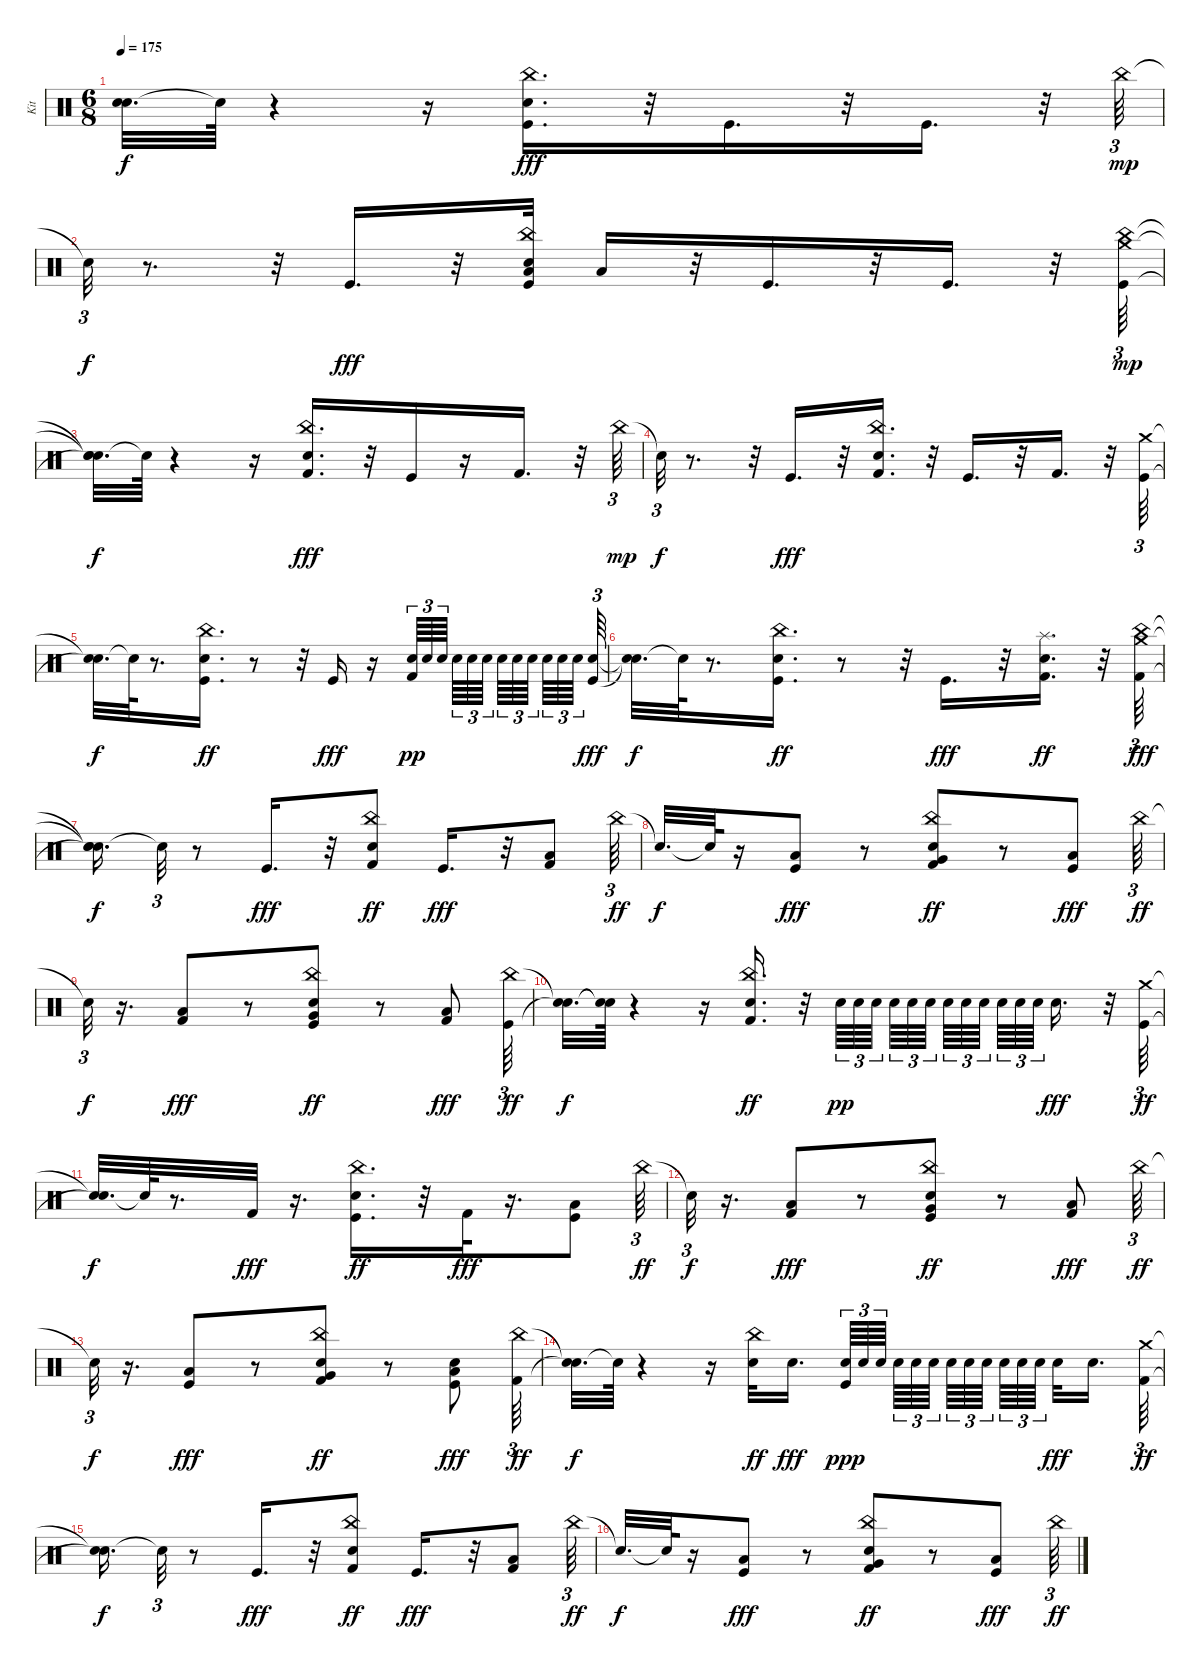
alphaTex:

\track ("Kit" "Kit") {instrument percussion}
\staff {score}
\articulation defaults
\ts (6 8)
\tempo 175
\clef neutral
\ks c
("Snare (hit)"{t} "Snare (hit)"{t}).32{d dy f} "Snare (hit)"{t}.64 r.4 r.16 ("Kick (hit)" "Snare (hit) 2" "China (hit)").16{d dy fff} r.32 "Kick (hit)".16{d} r.32 "Kick (hit)".16{d} r.32 "China (hit)".64{tu (3 2) dy mp} |
"Snare (hit)"{t}.32{tu (3 2) dy f} r.8{d} r.32 "Kick (hit)".16{d dy fff} r.32 ("Kick (hit)" "Snare (hit) 2" "Low Floor Tom (hit)" "China (hit)").32 "Low Floor Tom (hit)".16 r.32 "Kick (hit)".16{d} r.32 "Kick (hit)".16{d} r.32 ("Kick (hit)" "China (hit)" "Crash medium (hit)").64{tu (3 2) dy mp} |
("Snare (hit)"{t} "Snare (hit)"{t} "Snare (hit)"{t}).32{d dy f} "Snare (hit)"{t}.64 r.4 r.16 ("Kick (hit) 2" "Snare (hit) 2" "China (hit)").16{d dy fff} r.32 "Kick (hit)".16 r.16 "Kick (hit) 2".16{d} r.32 "China (hit)".64{tu (3 2) dy mp} |
"Snare (hit)"{t}.32{tu (3 2) dy f} r.8{d} r.32 "Kick (hit)".16{d dy fff} r.32 ("Kick (hit) 2" "Snare (hit) 2" "China (hit)").16{d} r.32 "Kick (hit)".16{d} r.32 "Kick (hit) 2".16{d} r.32 ("Kick (hit)" "Crash medium (hit)").64{tu (3 2)} |
("Snare (hit)"{t} "Snare (hit)"{t}).32{d dy f} "Snare (hit)"{t}.64 r.8{d} ("Kick (hit)" "Snare (hit) 2" "China (hit)").16{d dy ff} r.8 r.32 "Kick (hit)".16{dy fff} r.16 ("Kick (hit) 2" "Snare (hit) 2").64{tu (3 2) dy pp} "Snare (hit) 2".64{tu (3 2)} "Snare (hit) 2".64{tu (3 2) beam splitsecondary} "Snare (hit) 2".64{tu (3 2)} "Snare (hit) 2".64{tu (3 2)} "Snare (hit) 2".64{tu (3 2) beam splitsecondary} "Snare (hit) 2".64{tu (3 2)} "Snare (hit) 2".64{tu (3 2)} "Snare (hit) 2".64{tu (3 2) beam splitsecondary} "Snare (hit) 2".64{tu (3 2)} "Snare (hit) 2".64{tu (3 2)} "Snare (hit) 2".64{tu (3 2)} ("Kick (hit)" "Snare (hit) 2").64{tu (3 2) dy fff} |
("Snare (hit)"{t} "Snare (hit)"{t}).32{d dy f} "Snare (hit)"{t}.64 r.8{d} ("Kick (hit)" "Snare (hit) 2" "China (hit)").16{d dy ff} r.8 r.32 "Kick (hit)".16{d dy fff} r.32 ("Kick (hit) 2" "Snare (hit) 2" "Splash (hit)").16{d dy ff} r.32 ("Kick (hit) 2" "China (hit)" "Crash medium (hit)").64{tu (3 2) dy fff} |
("Snare (hit)"{t} "Snare (hit)"{t} "Snare (hit)"{t}).16{d dy f} "Snare (hit)"{t}.32{tu (3 2)} r.8 "Kick (hit)".16{d dy fff} r.32 ("Kick (hit) 2" "Snare (hit) 2" "China (hit)").8{dy ff} "Kick (hit)".16{d dy fff} r.32 ("Kick (hit) 2" "Low Floor Tom (hit)").8 "China (hit)".64{tu (3 2) dy ff} |
"Snare (hit)"{t}.32{d dy f} "Snare (hit)"{t}.64 r.16 ("Kick (hit)" "Low Floor Tom (hit)").8{dy fff} r.8 ("Kick (hit) 2" "Snare (hit) 2" "Very Low Tom (hit)" "China (hit)").8{dy ff} r.8 ("Kick (hit)" "Low Floor Tom (hit)").8{dy fff} "China (hit)".64{tu (3 2) dy ff} |
"Snare (hit)"{t}.32{tu (3 2) dy f} r.16{d} ("Kick (hit) 2" "Low Floor Tom (hit)").8{dy fff} r.8 ("Kick (hit)" "Snare (hit) 2" "Very Low Tom (hit)" "China (hit)").8{dy ff} r.8 ("Kick (hit) 2" "Low Floor Tom (hit)").8{dy fff} ("Kick (hit)" "China (hit)").64{tu (3 2) dy ff} |
("Snare (hit)"{t} "Snare (hit)"{t}).32{d dy f} ("Snare (hit)"{t} "Snare (hit)"{t}).64 r.4 r.16 ("Kick (hit) 2" "Snare (hit) 2" "China (hit)").16{d dy ff} r.32 "Snare (hit) 2".64{tu (3 2) dy pp} "Snare (hit) 2".64{tu (3 2)} "Snare (hit) 2".64{tu (3 2) beam splitsecondary} "Snare (hit) 2".64{tu (3 2)} "Snare (hit) 2".64{tu (3 2)} "Snare (hit) 2".64{tu (3 2) beam splitsecondary} "Snare (hit) 2".64{tu (3 2)} "Snare (hit) 2".64{tu (3 2)} "Snare (hit) 2".64{tu (3 2) beam splitsecondary} "Snare (hit) 2".64{tu (3 2)} "Snare (hit) 2".64{tu (3 2)} "Snare (hit) 2".64{tu (3 2) beam splitsecondary} "Snare (hit) 2".16{d dy fff} r.32 ("Kick (hit)" "Crash medium (hit)").64{tu (3 2) dy ff} |
("Snare (hit)"{t} "Snare (hit)"{t}).32{d dy f} "Snare (hit)"{t}.64 r.8{d} "Kick (hit) 2".32{dy fff} r.16{d} ("Kick (hit)" "Snare (hit) 2" "China (hit)").16{d dy ff} r.32 "Kick (hit) 2".32{dy fff} r.16{d} ("Kick (hit)" "Low Floor Tom (hit)").8 "China (hit)".64{tu (3 2) dy ff} |
"Snare (hit)"{t}.32{tu (3 2) dy f} r.16{d} ("Kick (hit) 2" "Low Floor Tom (hit)").8{dy fff} r.8 ("Kick (hit)" "Snare (hit) 2" "Very Low Tom (hit)" "China (hit)").8{dy ff} r.8 ("Kick (hit) 2" "Low Floor Tom (hit)").8{dy fff} "China (hit)".64{tu (3 2) dy ff} |
"Snare (hit)"{t}.32{tu (3 2) dy f} r.16{d} ("Kick (hit)" "Low Floor Tom (hit)").8{dy fff} r.8 ("Kick (hit) 2" "Snare (hit) 2" "Very Low Tom (hit)" "China (hit)").8{dy ff} r.8 ("Kick (hit)" "Snare (hit) 2" "Low Floor Tom (hit)").8{dy fff} ("Kick (hit) 2" "China (hit)").64{tu (3 2) dy ff} |
("Snare (hit)"{t} "Snare (hit)"{t}).32{d dy f} "Snare (hit)"{t}.64 r.4 r.16 ("Snare (hit) 2" "China (hit)").32{dy ff} "Snare (hit) 2".16{d dy fff beam splitsecondary} ("Kick (hit)" "Snare (hit) 2").64{tu (3 2) dy ppp} "Snare (hit) 2".64{tu (3 2)} "Snare (hit) 2".64{tu (3 2) beam splitsecondary} "Snare (hit) 2".64{tu (3 2)} "Snare (hit) 2".64{tu (3 2)} "Snare (hit) 2".64{tu (3 2) beam splitsecondary} "Snare (hit) 2".64{tu (3 2)} "Snare (hit) 2".64{tu (3 2)} "Snare (hit) 2".64{tu (3 2) beam splitsecondary} "Snare (hit) 2".64{tu (3 2)} "Snare (hit) 2".64{tu (3 2)} "Snare (hit) 2".64{tu (3 2) beam splitsecondary} "Snare (hit) 2".32{dy fff} "Snare (hit) 2".16{d} ("Kick (hit) 2" "Crash medium (hit)").64{tu (3 2) dy ff} |
("Snare (hit)"{t} "Snare (hit)"{t}).16{d dy f} "Snare (hit)"{t}.32{tu (3 2)} r.8 "Kick (hit)".16{d dy fff} r.32 ("Kick (hit) 2" "Snare (hit) 2" "China (hit)").8{dy ff} "Kick (hit)".16{d dy fff} r.32 ("Kick (hit) 2" "Low Floor Tom (hit)").8 "China (hit)".64{tu (3 2) dy ff} |
"Snare (hit)"{t}.32{d dy f} "Snare (hit)"{t}.64 r.16 ("Kick (hit)" "Low Floor Tom (hit)").8{dy fff} r.8 ("Kick (hit) 2" "Snare (hit) 2" "Very Low Tom (hit)" "China (hit)").8{dy ff} r.8 ("Kick (hit)" "Low Floor Tom (hit)").8{dy fff} "China (hit)".64{tu (3 2) dy ff}
